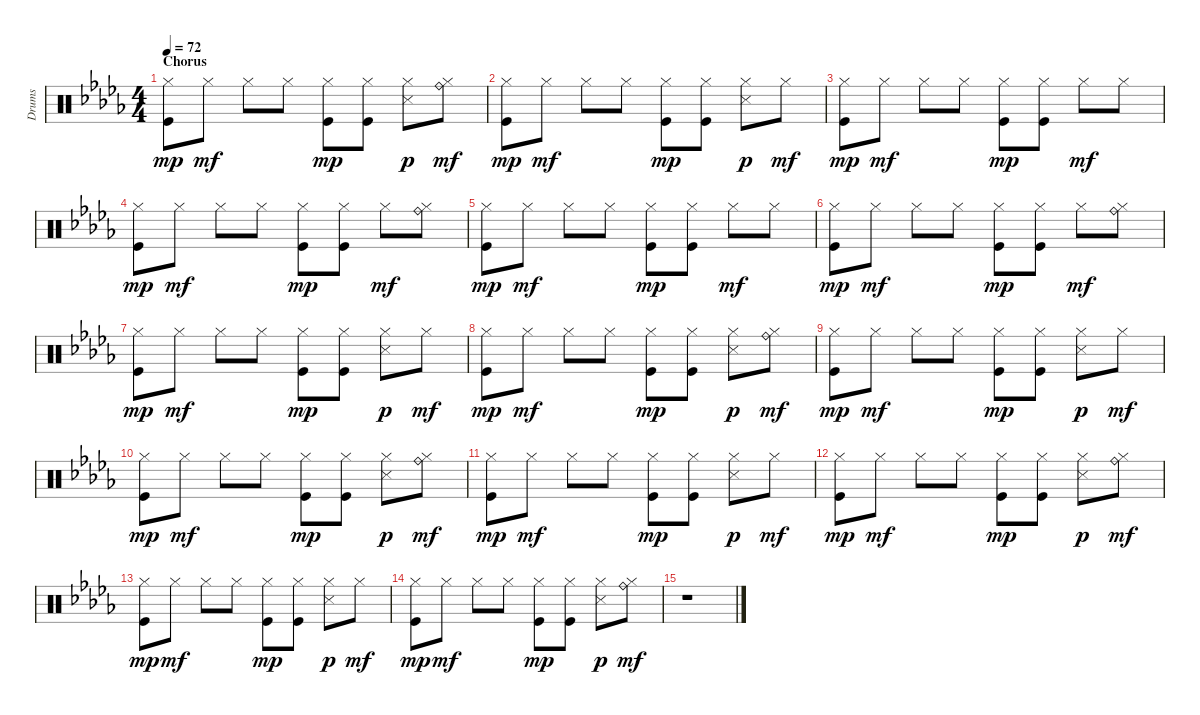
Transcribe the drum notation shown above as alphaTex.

\track ("Drums" "Drums") {instrument percussion}
\staff {score}
\articulation defaults
\ts (4 4)
\section ("" "Chorus")
\tempo 72
\clef neutral
\ks db
("Hi-Hat (closed)" "Kick (hit)").8{dy mp} "Hi-Hat (closed)".8{dy mf} "Hi-Hat (closed)".8 "Hi-Hat (closed)".8 ("Hi-Hat (closed)" "Kick (hit)").8{dy mp} ("Hi-Hat (closed)" "Kick (hit)").8 ("Hi-Hat (closed)" "Snare (side stick) 3").8{dy p} ("Ride (bell)" "Hi-Hat (closed)").8{dy mf} |
("Hi-Hat (closed)" "Kick (hit)").8{dy mp} "Hi-Hat (closed)".8{dy mf} "Hi-Hat (closed)".8 "Hi-Hat (closed)".8 ("Hi-Hat (closed)" "Kick (hit)").8{dy mp} ("Hi-Hat (closed)" "Kick (hit)").8 ("Hi-Hat (closed)" "Snare (side stick) 3").8{dy p} "Hi-Hat (closed)".8{dy mf} |
("Hi-Hat (closed)" "Kick (hit)").8{dy mp} "Hi-Hat (closed)".8{dy mf} "Hi-Hat (closed)".8 "Hi-Hat (closed)".8 ("Hi-Hat (closed)" "Kick (hit)").8{dy mp} ("Hi-Hat (closed)" "Kick (hit)").8 "Hi-Hat (closed)".8{dy mf} "Hi-Hat (closed)".8 |
("Hi-Hat (closed)" "Kick (hit)").8{dy mp} "Hi-Hat (closed)".8{dy mf} "Hi-Hat (closed)".8 "Hi-Hat (closed)".8 ("Hi-Hat (closed)" "Kick (hit)").8{dy mp} ("Hi-Hat (closed)" "Kick (hit)").8 "Hi-Hat (closed)".8{dy mf} ("Ride (bell)" "Hi-Hat (closed)").8 |
("Hi-Hat (closed)" "Kick (hit)").8{dy mp} "Hi-Hat (closed)".8{dy mf} "Hi-Hat (closed)".8 "Hi-Hat (closed)".8 ("Hi-Hat (closed)" "Kick (hit)").8{dy mp} ("Hi-Hat (closed)" "Kick (hit)").8 "Hi-Hat (closed)".8{dy mf} "Hi-Hat (closed)".8 |
("Hi-Hat (closed)" "Kick (hit)").8{dy mp} "Hi-Hat (closed)".8{dy mf} "Hi-Hat (closed)".8 "Hi-Hat (closed)".8 ("Hi-Hat (closed)" "Kick (hit)").8{dy mp} ("Hi-Hat (closed)" "Kick (hit)").8 "Hi-Hat (closed)".8{dy mf} ("Ride (bell)" "Hi-Hat (closed)").8 |
("Hi-Hat (closed)" "Kick (hit)").8{dy mp} "Hi-Hat (closed)".8{dy mf} "Hi-Hat (closed)".8 "Hi-Hat (closed)".8 ("Hi-Hat (closed)" "Kick (hit)").8{dy mp} ("Hi-Hat (closed)" "Kick (hit)").8 ("Hi-Hat (closed)" "Snare (side stick) 3").8{dy p} "Hi-Hat (closed)".8{dy mf} |
("Hi-Hat (closed)" "Kick (hit)").8{dy mp} "Hi-Hat (closed)".8{dy mf} "Hi-Hat (closed)".8 "Hi-Hat (closed)".8 ("Hi-Hat (closed)" "Kick (hit)").8{dy mp} ("Hi-Hat (closed)" "Kick (hit)").8 ("Hi-Hat (closed)" "Snare (side stick) 3").8{dy p} ("Ride (bell)" "Hi-Hat (closed)").8{dy mf} |
("Hi-Hat (closed)" "Kick (hit)").8{dy mp} "Hi-Hat (closed)".8{dy mf} "Hi-Hat (closed)".8 "Hi-Hat (closed)".8 ("Hi-Hat (closed)" "Kick (hit)").8{dy mp} ("Hi-Hat (closed)" "Kick (hit)").8 ("Hi-Hat (closed)" "Snare (side stick) 3").8{dy p} "Hi-Hat (closed)".8{dy mf} |
("Hi-Hat (closed)" "Kick (hit)").8{dy mp} "Hi-Hat (closed)".8{dy mf} "Hi-Hat (closed)".8 "Hi-Hat (closed)".8 ("Hi-Hat (closed)" "Kick (hit)").8{dy mp} ("Hi-Hat (closed)" "Kick (hit)").8 ("Hi-Hat (closed)" "Snare (side stick) 3").8{dy p} ("Ride (bell)" "Hi-Hat (closed)").8{dy mf} |
("Hi-Hat (closed)" "Kick (hit)").8{dy mp} "Hi-Hat (closed)".8{dy mf} "Hi-Hat (closed)".8 "Hi-Hat (closed)".8 ("Hi-Hat (closed)" "Kick (hit)").8{dy mp} ("Hi-Hat (closed)" "Kick (hit)").8 ("Hi-Hat (closed)" "Snare (side stick) 3").8{dy p} "Hi-Hat (closed)".8{dy mf} |
("Hi-Hat (closed)" "Kick (hit)").8{dy mp} "Hi-Hat (closed)".8{dy mf} "Hi-Hat (closed)".8 "Hi-Hat (closed)".8 ("Hi-Hat (closed)" "Kick (hit)").8{dy mp} ("Hi-Hat (closed)" "Kick (hit)").8 ("Hi-Hat (closed)" "Snare (side stick) 3").8{dy p} ("Ride (bell)" "Hi-Hat (closed)").8{dy mf} |
("Hi-Hat (closed)" "Kick (hit)").8{dy mp} "Hi-Hat (closed)".8{dy mf} "Hi-Hat (closed)".8 "Hi-Hat (closed)".8 ("Hi-Hat (closed)" "Kick (hit)").8{dy mp} ("Hi-Hat (closed)" "Kick (hit)").8 ("Hi-Hat (closed)" "Snare (side stick) 3").8{dy p} "Hi-Hat (closed)".8{dy mf} |
("Hi-Hat (closed)" "Kick (hit)").8{dy mp} "Hi-Hat (closed)".8{dy mf} "Hi-Hat (closed)".8 "Hi-Hat (closed)".8 ("Hi-Hat (closed)" "Kick (hit)").8{dy mp} ("Hi-Hat (closed)" "Kick (hit)").8 ("Hi-Hat (closed)" "Snare (side stick) 3").8{dy p} ("Ride (bell)" "Hi-Hat (closed)").8{dy mf} |
r.1
